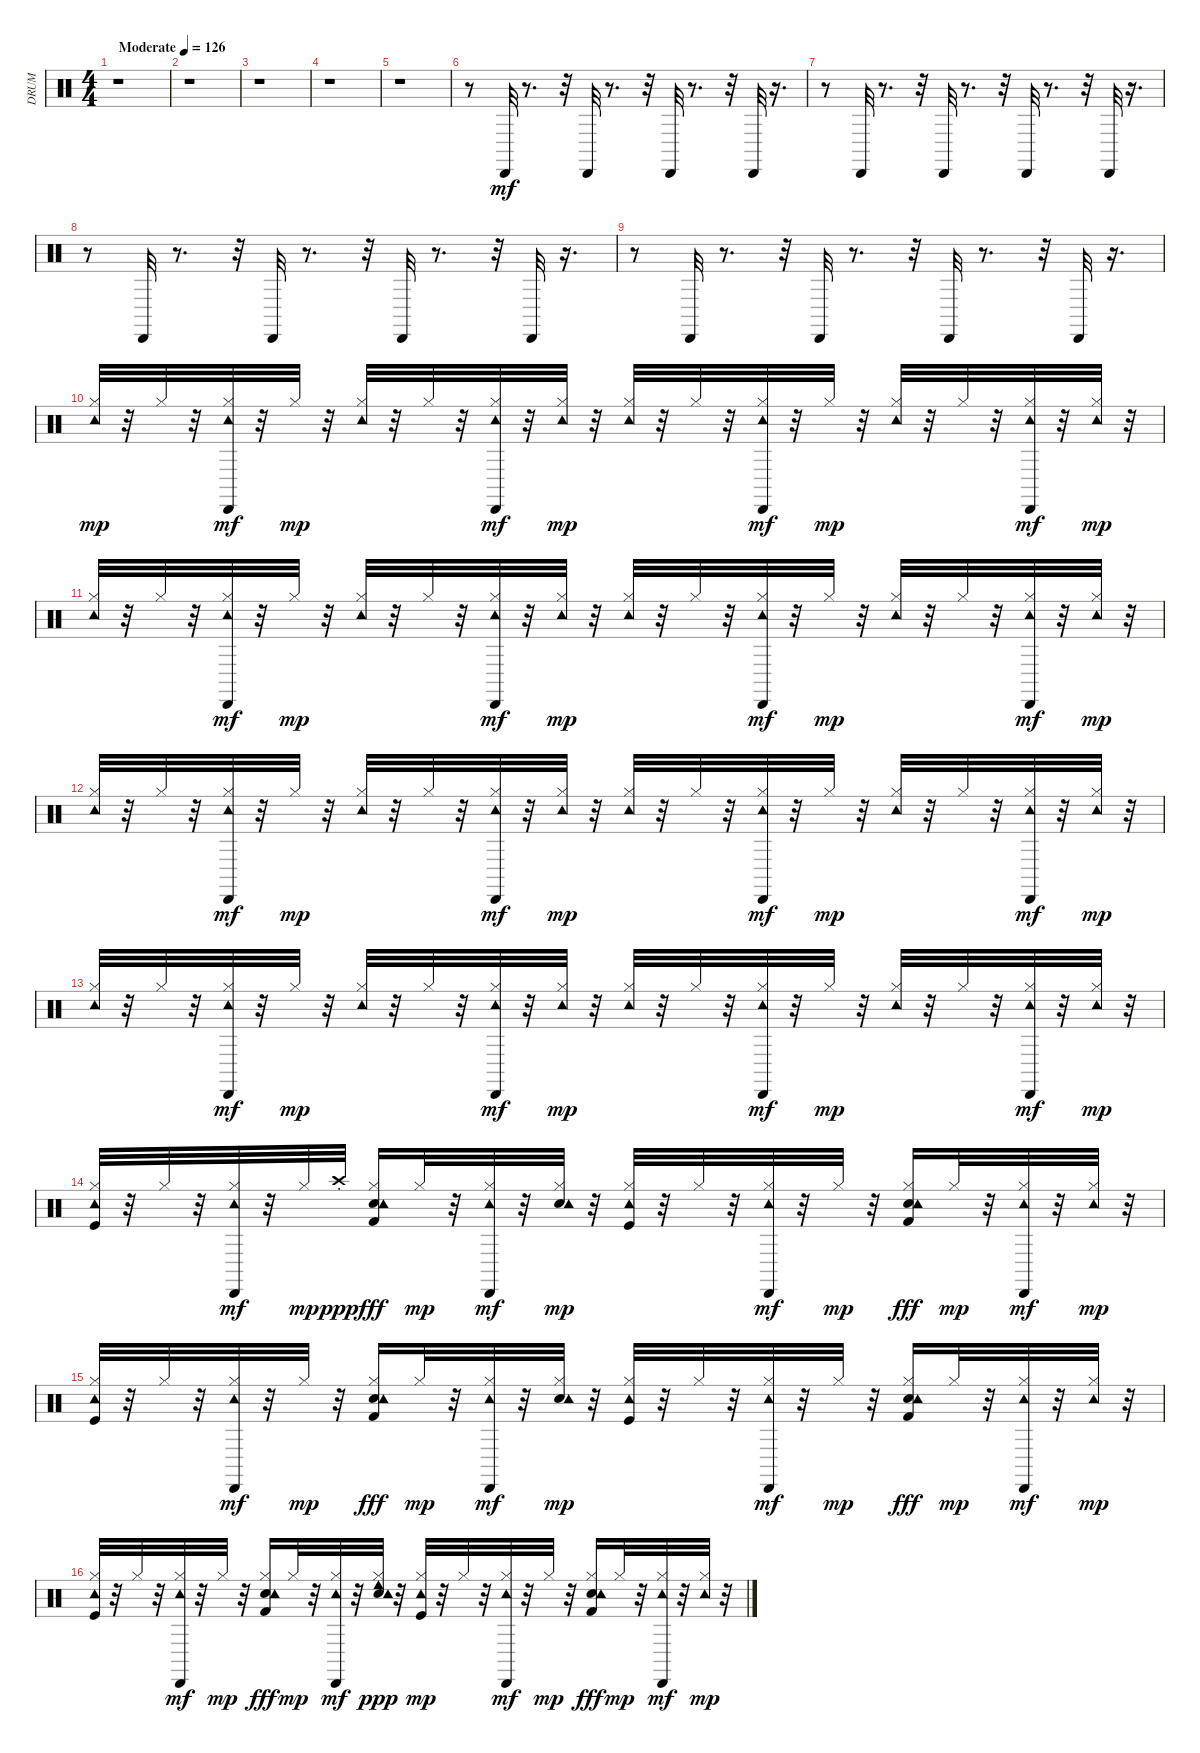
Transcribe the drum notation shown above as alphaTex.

\track ("DRUM" "DRUM") {instrument percussion}
\staff {score}
\articulation defaults
\ts (4 4)
\tempo (126 "Moderate")
\clef neutral
\ks c
r.1{dy mf} |
r.1 |
r.1 |
r.1 |
r.1 |
r.8 "Cabasa (hit)".32 r.8{d} r.32 "Cabasa (hit)".32 r.8{d} r.32 "Cabasa (hit)".32 r.8{d} r.32 "Cabasa (hit)".32 r.16{d} |
r.8 "Cabasa (hit)".32 r.8{d} r.32 "Cabasa (hit)".32 r.8{d} r.32 "Cabasa (hit)".32 r.8{d} r.32 "Cabasa (hit)".32 r.16{d} |
r.8 "Cabasa (hit)".32 r.8{d} r.32 "Cabasa (hit)".32 r.8{d} r.32 "Cabasa (hit)".32 r.8{d} r.32 "Cabasa (hit)".32 r.16{d} |
r.8 "Cabasa (hit)".32 r.8{d} r.32 "Cabasa (hit)".32 r.8{d} r.32 "Cabasa (hit)".32 r.8{d} r.32 "Cabasa (hit)".32 r.16{d} |
("Hi-Hat (closed)" "Tambourine (hit)").32{dy mp} r.32 "Hi-Hat (closed)".32 r.32 ("Hi-Hat (closed)" "Tambourine (hit)" "Cabasa (hit)").32{dy mf} r.32 "Hi-Hat (closed)".32{dy mp} r.32 ("Hi-Hat (closed)" "Tambourine (hit)").32 r.32 "Hi-Hat (closed)".32 r.32 ("Hi-Hat (closed)" "Tambourine (hit)" "Cabasa (hit)").32{dy mf} r.32 ("Hi-Hat (closed)" "Tambourine (hit)").32{dy mp} r.32 ("Hi-Hat (closed)" "Tambourine (hit)").32 r.32 "Hi-Hat (closed)".32 r.32 ("Hi-Hat (closed)" "Tambourine (hit)" "Cabasa (hit)").32{dy mf} r.32 "Hi-Hat (closed)".32{dy mp} r.32 ("Hi-Hat (closed)" "Tambourine (hit)").32 r.32 "Hi-Hat (closed)".32 r.32 ("Hi-Hat (closed)" "Tambourine (hit)" "Cabasa (hit)").32{dy mf} r.32 ("Hi-Hat (closed)" "Tambourine (hit)").32{dy mp} r.32 |
("Hi-Hat (closed)" "Tambourine (hit)").32 r.32 "Hi-Hat (closed)".32 r.32 ("Hi-Hat (closed)" "Tambourine (hit)" "Cabasa (hit)").32{dy mf} r.32 "Hi-Hat (closed)".32{dy mp} r.32 ("Hi-Hat (closed)" "Tambourine (hit)").32 r.32 "Hi-Hat (closed)".32 r.32 ("Hi-Hat (closed)" "Tambourine (hit)" "Cabasa (hit)").32{dy mf} r.32 ("Hi-Hat (closed)" "Tambourine (hit)").32{dy mp} r.32 ("Hi-Hat (closed)" "Tambourine (hit)").32 r.32 "Hi-Hat (closed)".32 r.32 ("Hi-Hat (closed)" "Tambourine (hit)" "Cabasa (hit)").32{dy mf} r.32 "Hi-Hat (closed)".32{dy mp} r.32 ("Hi-Hat (closed)" "Tambourine (hit)").32 r.32 "Hi-Hat (closed)".32 r.32 ("Hi-Hat (closed)" "Tambourine (hit)" "Cabasa (hit)").32{dy mf} r.32 ("Hi-Hat (closed)" "Tambourine (hit)").32{dy mp} r.32 |
("Hi-Hat (closed)" "Tambourine (hit)").32 r.32 "Hi-Hat (closed)".32 r.32 ("Hi-Hat (closed)" "Tambourine (hit)" "Cabasa (hit)").32{dy mf} r.32 "Hi-Hat (closed)".32{dy mp} r.32 ("Hi-Hat (closed)" "Tambourine (hit)").32 r.32 "Hi-Hat (closed)".32 r.32 ("Hi-Hat (closed)" "Tambourine (hit)" "Cabasa (hit)").32{dy mf} r.32 ("Hi-Hat (closed)" "Tambourine (hit)").32{dy mp} r.32 ("Hi-Hat (closed)" "Tambourine (hit)").32 r.32 "Hi-Hat (closed)".32 r.32 ("Hi-Hat (closed)" "Tambourine (hit)" "Cabasa (hit)").32{dy mf} r.32 "Hi-Hat (closed)".32{dy mp} r.32 ("Hi-Hat (closed)" "Tambourine (hit)").32 r.32 "Hi-Hat (closed)".32 r.32 ("Hi-Hat (closed)" "Tambourine (hit)" "Cabasa (hit)").32{dy mf} r.32 ("Hi-Hat (closed)" "Tambourine (hit)").32{dy mp} r.32 |
("Hi-Hat (closed)" "Tambourine (hit)").32 r.32 "Hi-Hat (closed)".32 r.32 ("Hi-Hat (closed)" "Tambourine (hit)" "Cabasa (hit)").32{dy mf} r.32 "Hi-Hat (closed)".32{dy mp} r.32 ("Hi-Hat (closed)" "Tambourine (hit)").32 r.32 "Hi-Hat (closed)".32 r.32 ("Hi-Hat (closed)" "Tambourine (hit)" "Cabasa (hit)").32{dy mf} r.32 ("Hi-Hat (closed)" "Tambourine (hit)").32{dy mp} r.32 ("Hi-Hat (closed)" "Tambourine (hit)").32 r.32 "Hi-Hat (closed)".32 r.32 ("Hi-Hat (closed)" "Tambourine (hit)" "Cabasa (hit)").32{dy mf} r.32 "Hi-Hat (closed)".32{dy mp} r.32 ("Hi-Hat (closed)" "Tambourine (hit)").32 r.32 "Hi-Hat (closed)".32 r.32 ("Hi-Hat (closed)" "Tambourine (hit)" "Cabasa (hit)").32{dy mf} r.32 ("Hi-Hat (closed)" "Tambourine (hit)").32{dy mp} r.32 |
("Kick (hit)" "Hi-Hat (closed)" "Tambourine (hit)").32 r.32 "Hi-Hat (closed)".32 r.32 ("Hi-Hat (closed)" "Tambourine (hit)" "Cabasa (hit)").32{dy mf} r.32 "Hi-Hat (closed)".32{dy mp} "Crash high (choke)".32{dy ppp} ("Snare (hit) 2" "Hi-Hat (closed)" "Tambourine (hit)" "Kick (hit) 2").16{dy fff} "Hi-Hat (closed)".32{dy mp} r.32 ("Hi-Hat (closed)" "Tambourine (hit)" "Cabasa (hit)").32{dy mf} r.32 ("Snare (hit) 2" "Hi-Hat (closed)" "Tambourine (hit)").32{dy mp} r.32 ("Kick (hit)" "Hi-Hat (closed)" "Tambourine (hit)").32 r.32 "Hi-Hat (closed)".32 r.32 ("Hi-Hat (closed)" "Tambourine (hit)" "Cabasa (hit)").32{dy mf} r.32 "Hi-Hat (closed)".32{dy mp} r.32 ("Snare (hit) 2" "Hi-Hat (closed)" "Tambourine (hit)" "Kick (hit) 2").16{dy fff} "Hi-Hat (closed)".32{dy mp} r.32 ("Hi-Hat (closed)" "Tambourine (hit)" "Cabasa (hit)").32{dy mf} r.32 ("Hi-Hat (closed)" "Tambourine (hit)").32{dy mp} r.32 |
("Kick (hit)" "Hi-Hat (closed)" "Tambourine (hit)").32 r.32 "Hi-Hat (closed)".32 r.32 ("Hi-Hat (closed)" "Tambourine (hit)" "Cabasa (hit)").32{dy mf} r.32 "Hi-Hat (closed)".32{dy mp} r.32 ("Snare (hit) 2" "Hi-Hat (closed)" "Tambourine (hit)" "Kick (hit) 2").16{dy fff} "Hi-Hat (closed)".32{dy mp} r.32 ("Hi-Hat (closed)" "Tambourine (hit)" "Cabasa (hit)").32{dy mf} r.32 ("Snare (hit) 2" "Hi-Hat (closed)" "Tambourine (hit)").32{dy mp} r.32 ("Kick (hit)" "Hi-Hat (closed)" "Tambourine (hit)").32 r.32 "Hi-Hat (closed)".32 r.32 ("Hi-Hat (closed)" "Tambourine (hit)" "Cabasa (hit)").32{dy mf} r.32 "Hi-Hat (closed)".32{dy mp} r.32 ("Snare (hit) 2" "Hi-Hat (closed)" "Tambourine (hit)" "Kick (hit) 2").16{dy fff} "Hi-Hat (closed)".32{dy mp} r.32 ("Hi-Hat (closed)" "Tambourine (hit)" "Cabasa (hit)").32{dy mf} r.32 ("Hi-Hat (closed)" "Tambourine (hit)").32{dy mp} r.32 |
("Kick (hit)" "Hi-Hat (closed)" "Tambourine (hit)").32 r.32 "Hi-Hat (closed)".32 r.32 ("Hi-Hat (closed)" "Tambourine (hit)" "Cabasa (hit)").32{dy mf} r.32 "Hi-Hat (closed)".32{dy mp} r.32 ("Snare (hit) 2" "Hi-Hat (closed)" "Tambourine (hit)" "Kick (hit) 2").16{dy fff} "Hi-Hat (closed)".32{dy mp} r.32 ("Hi-Hat (closed)" "Tambourine (hit)" "Cabasa (hit)").32{dy mf} r.32 ("Snare (hit) 2" "Hi-Hat (closed)" "Tambourine (hit)" "Cowbell low (hit)").32{dy ppp} r.32 ("Kick (hit)" "Hi-Hat (closed)" "Tambourine (hit)").32{dy mp} r.32 "Hi-Hat (closed)".32 r.32 ("Hi-Hat (closed)" "Tambourine (hit)" "Cabasa (hit)").32{dy mf} r.32 "Hi-Hat (closed)".32{dy mp} r.32 ("Snare (hit) 2" "Hi-Hat (closed)" "Tambourine (hit)" "Kick (hit) 2").16{dy fff} "Hi-Hat (closed)".32{dy mp} r.32 ("Hi-Hat (closed)" "Tambourine (hit)" "Cabasa (hit)").32{dy mf} r.32 ("Hi-Hat (closed)" "Tambourine (hit)").32{dy mp} r.32
